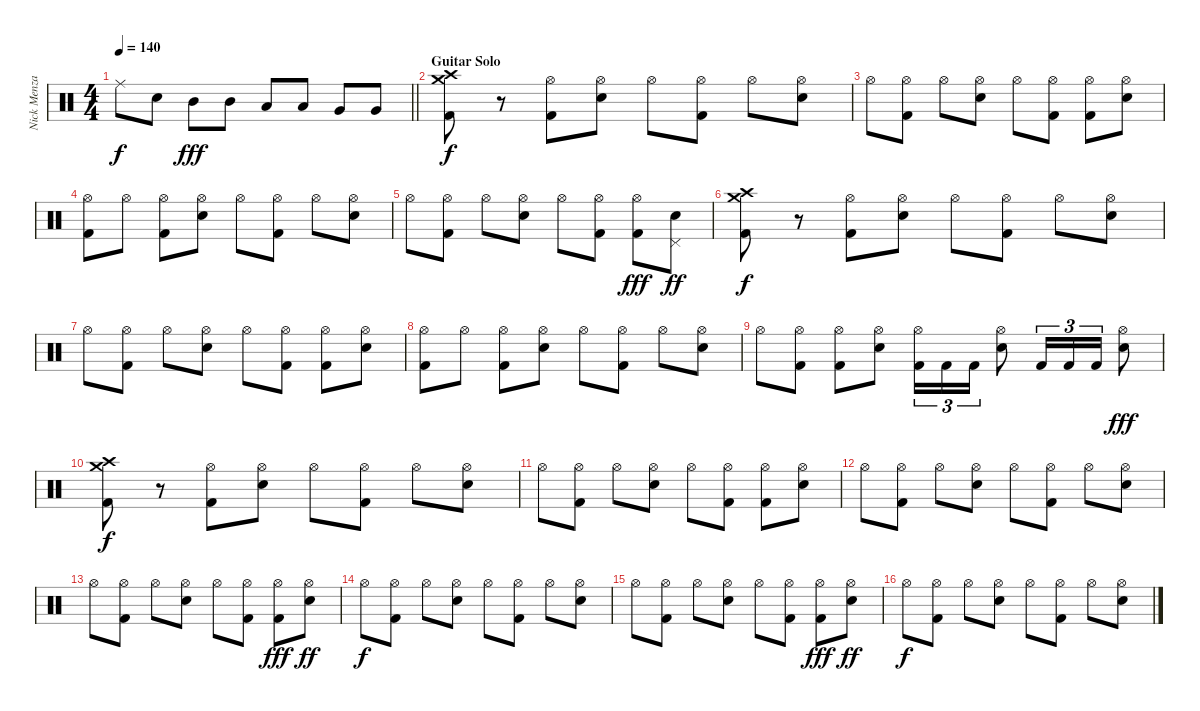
\track ("Nick Menza" "Nick Menza") {instrument percussion}
\staff {score}
\articulation defaults
\ts (4 4)
\tempo 140
\clef neutral
\barLineRight lightlight
\ks c "Ride (middle)".8{dy f} "Snare (hit) 2".8 "Mid Tom (hit)".8{dy fff} "Mid Tom (hit)".8 "Low Tom (hit)".8 "Low Tom (hit)".8 "Very Low Tom (hit)".8 "Very Low Tom (hit)".8
|
\section ("" "Guitar Solo")
("Crash high (hit)" "Crash medium (hit)" "Kick (hit) 2").8{dy f} r.8 ("Hi-Hat (open)" "Kick (hit) 2").8 ("Hi-Hat (open)" "Snare (hit) 2").8 "Hi-Hat (open)".8 ("Hi-Hat (open)" "Kick (hit) 2").8 "Hi-Hat (open)".8 ("Hi-Hat (open)" "Snare (hit) 2").8 |
"Hi-Hat (open)".8 ("Hi-Hat (open)" "Kick (hit) 2").8 "Hi-Hat (open)".8 ("Hi-Hat (open)" "Snare (hit) 2").8 "Hi-Hat (open)".8 ("Hi-Hat (open)" "Kick (hit) 2").8 ("Hi-Hat (open)" "Kick (hit) 2").8 ("Hi-Hat (open)" "Snare (hit) 2").8 |
("Hi-Hat (open)" "Kick (hit) 2").8 "Hi-Hat (open)".8 ("Hi-Hat (open)" "Kick (hit) 2").8 ("Hi-Hat (open)" "Snare (hit) 2").8 "Hi-Hat (open)".8 ("Hi-Hat (open)" "Kick (hit) 2").8 "Hi-Hat (open)".8 ("Hi-Hat (open)" "Snare (hit) 2").8 |
"Hi-Hat (open)".8 ("Hi-Hat (open)" "Kick (hit) 2").8 "Hi-Hat (open)".8 ("Hi-Hat (open)" "Snare (hit) 2").8 "Hi-Hat (open)".8 ("Hi-Hat (open)" "Kick (hit) 2").8 ("Hi-Hat (open)" "Kick (hit) 2").8{dy fff} ("Pedal Hi-Hat (hit)" "Snare (hit) 2").8{dy ff} |
("Crash high (hit)" "Crash medium (hit)" "Kick (hit) 2").8{dy f} r.8 ("Hi-Hat (open)" "Kick (hit) 2").8 ("Hi-Hat (open)" "Snare (hit) 2").8 "Hi-Hat (open)".8 ("Hi-Hat (open)" "Kick (hit) 2").8 "Hi-Hat (open)".8 ("Hi-Hat (open)" "Snare (hit) 2").8 |
"Hi-Hat (open)".8 ("Hi-Hat (open)" "Kick (hit) 2").8 "Hi-Hat (open)".8 ("Hi-Hat (open)" "Snare (hit) 2").8 "Hi-Hat (open)".8 ("Hi-Hat (open)" "Kick (hit) 2").8 ("Hi-Hat (open)" "Kick (hit) 2").8 ("Hi-Hat (open)" "Snare (hit) 2").8 |
("Hi-Hat (open)" "Kick (hit) 2").8 "Hi-Hat (open)".8 ("Hi-Hat (open)" "Kick (hit) 2").8 ("Hi-Hat (open)" "Snare (hit) 2").8 "Hi-Hat (open)".8 ("Hi-Hat (open)" "Kick (hit) 2").8 "Hi-Hat (open)".8 ("Hi-Hat (open)" "Snare (hit) 2").8 |
"Hi-Hat (open)".8 ("Hi-Hat (open)" "Kick (hit) 2").8 ("Hi-Hat (open)" "Kick (hit) 2").8 ("Hi-Hat (open)" "Snare (hit) 2").8 ("Hi-Hat (open)" "Kick (hit) 2").16{tu (3 2)} "Kick (hit) 2".16{tu (3 2)} "Kick (hit) 2".16{tu (3 2)} ("Hi-Hat (open)" "Snare (hit) 2").8 "Kick (hit) 2".16{tu (3 2)} "Kick (hit) 2".16{tu (3 2)} "Kick (hit) 2".16{tu (3 2)} ("Hi-Hat (open)" "Snare (hit) 2").8{dy fff} |
("Crash high (hit)" "Crash medium (hit)" "Kick (hit) 2").8{dy f} r.8 ("Hi-Hat (open)" "Kick (hit) 2").8 ("Hi-Hat (open)" "Snare (hit) 2").8 "Hi-Hat (open)".8 ("Hi-Hat (open)" "Kick (hit) 2").8 "Hi-Hat (open)".8 ("Hi-Hat (open)" "Snare (hit) 2").8 |
"Hi-Hat (open)".8 ("Hi-Hat (open)" "Kick (hit) 2").8 "Hi-Hat (open)".8 ("Hi-Hat (open)" "Snare (hit) 2").8 "Hi-Hat (open)".8 ("Hi-Hat (open)" "Kick (hit) 2").8 ("Hi-Hat (open)" "Kick (hit) 2").8 ("Hi-Hat (open)" "Snare (hit) 2").8 |
"Hi-Hat (open)".8 ("Hi-Hat (open)" "Kick (hit) 2").8 "Hi-Hat (open)".8 ("Hi-Hat (open)" "Snare (hit) 2").8 "Hi-Hat (open)".8 ("Hi-Hat (open)" "Kick (hit) 2").8 "Hi-Hat (open)".8 ("Hi-Hat (open)" "Snare (hit) 2").8 |
"Hi-Hat (open)".8 ("Hi-Hat (open)" "Kick (hit) 2").8 "Hi-Hat (open)".8 ("Hi-Hat (open)" "Snare (hit) 2").8 "Hi-Hat (open)".8 ("Hi-Hat (open)" "Kick (hit) 2").8 ("Hi-Hat (open)" "Kick (hit) 2").8{dy fff} ("Hi-Hat (open)" "Snare (hit) 2").8{dy ff} |
"Hi-Hat (open)".8{dy f} ("Hi-Hat (open)" "Kick (hit) 2").8 "Hi-Hat (open)".8 ("Hi-Hat (open)" "Snare (hit) 2").8 "Hi-Hat (open)".8 ("Hi-Hat (open)" "Kick (hit) 2").8 "Hi-Hat (open)".8 ("Hi-Hat (open)" "Snare (hit) 2").8 |
"Hi-Hat (open)".8 ("Hi-Hat (open)" "Kick (hit) 2").8 "Hi-Hat (open)".8 ("Hi-Hat (open)" "Snare (hit) 2").8 "Hi-Hat (open)".8 ("Hi-Hat (open)" "Kick (hit) 2").8 ("Hi-Hat (open)" "Kick (hit) 2").8{dy fff} ("Hi-Hat (open)" "Snare (hit) 2").8{dy ff} |
"Hi-Hat (open)".8{dy f} ("Hi-Hat (open)" "Kick (hit) 2").8 "Hi-Hat (open)".8 ("Hi-Hat (open)" "Snare (hit) 2").8 "Hi-Hat (open)".8 ("Hi-Hat (open)" "Kick (hit) 2").8 "Hi-Hat (open)".8 ("Hi-Hat (open)" "Snare (hit) 2").8
